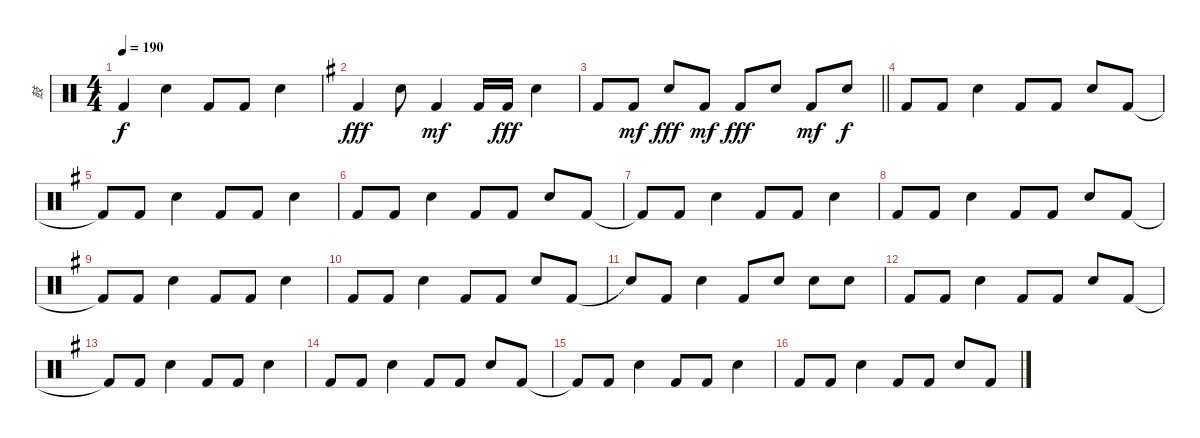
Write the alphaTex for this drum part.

\track ("鼓" "鼓") {instrument percussion}
\staff {score}
\articulation defaults
\ts (4 4)
\tempo 190
\clef neutral
\ks c "Kick (hit) 2".4{dy f} "Electric Snare (hit)".4 "Kick (hit) 2".8 "Kick (hit) 2".8 "Electric Snare (hit)".4
|
\ks g "Kick (hit) 2".4{dy fff} "Electric Snare (hit)".8 "Kick (hit) 2".4{dy mf} "Kick (hit) 2".16 "Kick (hit) 2".16{dy fff} "Electric Snare (hit)".4
|
\barLineRight lightlight "Kick (hit) 2".8 "Kick (hit) 2".8{dy mf} "Electric Snare (hit)".8{dy fff} "Kick (hit) 2".8{dy mf} "Kick (hit) 2".8{dy fff} "Electric Snare (hit)".8 "Kick (hit) 2".8{dy mf} "Electric Snare (hit)".8{dy f}
|
"Kick (hit) 2".8 "Kick (hit) 2".8 "Electric Snare (hit)".4 "Kick (hit) 2".8 "Kick (hit) 2".8 "Electric Snare (hit)".8 "Kick (hit) 2".8 |
"Kick (hit) 2"{t}.8 "Kick (hit) 2".8 "Electric Snare (hit)".4 "Kick (hit) 2".8 "Kick (hit) 2".8 "Electric Snare (hit)".4 |
"Kick (hit) 2".8 "Kick (hit) 2".8 "Electric Snare (hit)".4 "Kick (hit) 2".8 "Kick (hit) 2".8 "Electric Snare (hit)".8 "Kick (hit) 2".8 |
"Kick (hit) 2"{t}.8 "Kick (hit) 2".8 "Electric Snare (hit)".4 "Kick (hit) 2".8 "Kick (hit) 2".8 "Electric Snare (hit)".4 |
"Kick (hit) 2".8 "Kick (hit) 2".8 "Electric Snare (hit)".4 "Kick (hit) 2".8 "Kick (hit) 2".8 "Electric Snare (hit)".8 "Kick (hit) 2".8 |
"Kick (hit) 2"{t}.8 "Kick (hit) 2".8 "Electric Snare (hit)".4 "Kick (hit) 2".8 "Kick (hit) 2".8 "Electric Snare (hit)".4 |
"Kick (hit) 2".8 "Kick (hit) 2".8 "Electric Snare (hit)".4 "Kick (hit) 2".8 "Kick (hit) 2".8 "Electric Snare (hit)".8 "Kick (hit) 2".8 |
"Snare (hit)"{t}.8 "Kick (hit) 2".8 "Electric Snare (hit)".4 "Kick (hit) 2".8 "Electric Snare (hit)".8 "Electric Snare (hit)".8 "Electric Snare (hit)".8 |
"Kick (hit) 2".8 "Kick (hit) 2".8 "Electric Snare (hit)".4 "Kick (hit) 2".8 "Kick (hit) 2".8 "Electric Snare (hit)".8 "Kick (hit) 2".8 |
"Kick (hit) 2"{t}.8 "Kick (hit) 2".8 "Electric Snare (hit)".4 "Kick (hit) 2".8 "Kick (hit) 2".8 "Electric Snare (hit)".4 |
"Kick (hit) 2".8 "Kick (hit) 2".8 "Electric Snare (hit)".4 "Kick (hit) 2".8 "Kick (hit) 2".8 "Electric Snare (hit)".8 "Kick (hit) 2".8 |
"Kick (hit) 2"{t}.8 "Kick (hit) 2".8 "Electric Snare (hit)".4 "Kick (hit) 2".8 "Kick (hit) 2".8 "Electric Snare (hit)".4 |
"Kick (hit) 2".8 "Kick (hit) 2".8 "Electric Snare (hit)".4 "Kick (hit) 2".8 "Kick (hit) 2".8 "Electric Snare (hit)".8 "Kick (hit) 2".8
